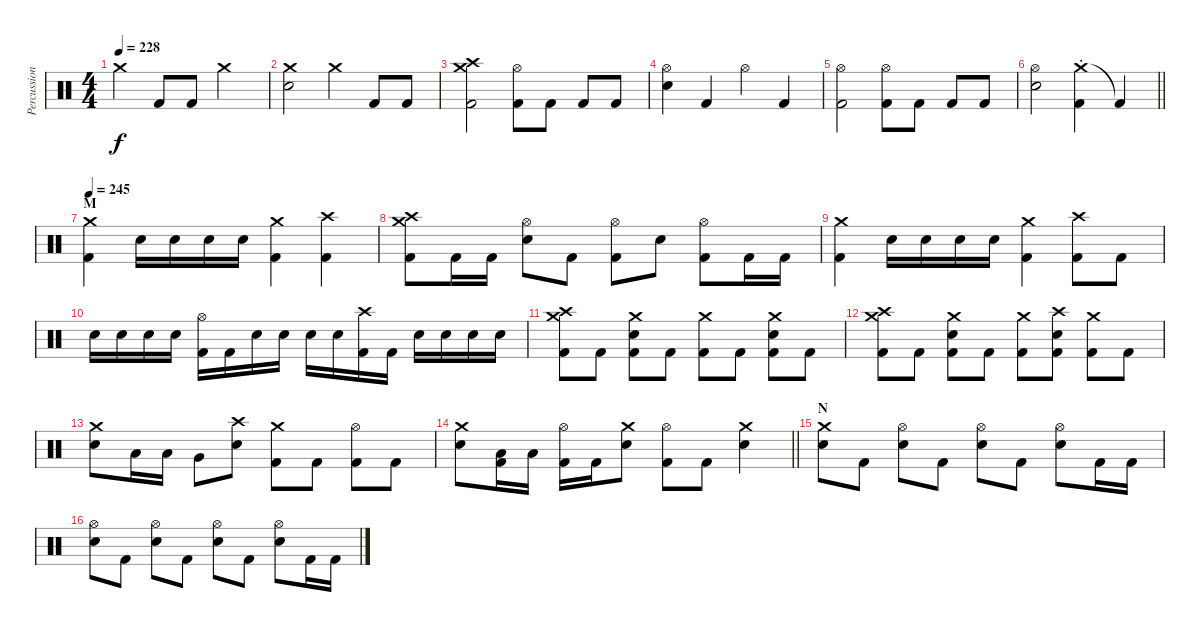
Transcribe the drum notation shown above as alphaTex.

\track ("Percussion" "Percussion") {instrument percussion}
\staff {score}
\articulation defaults
\ts (4 4)
\tempo 228
\clef neutral
\ks c "Crash medium (hit)".4{dy f} "Kick (hit) 2".8 "Kick (hit) 2".8 "Crash medium (hit)".2
|
("Crash medium (hit)" "Electric Snare (hit)").2 "Crash medium (hit)".4 "Kick (hit) 2".8 "Kick (hit) 2".8 |
("Crash medium (hit)" "Crash high (hit)" "Kick (hit) 2").2 ("Hi-Hat (open)" "Kick (hit) 2").8 "Kick (hit) 2".8 "Kick (hit) 2".8 "Kick (hit) 2".8 |
("Hi-Hat (open)" "Electric Snare (hit)").4 "Kick (hit) 2".4 "Hi-Hat (open)".4 "Kick (hit) 2".4 |
("Hi-Hat (open)" "Kick (hit) 2").2 ("Hi-Hat (open)" "Kick (hit) 2").8 "Kick (hit) 2".8 "Kick (hit) 2".8 "Kick (hit) 2".8 |
\barLineRight lightlight
("Hi-Hat (open)" "Electric Snare (hit)").2 ("Crash medium (hit)"{st} "Kick (hit) 2").4 "Kick (hit) 2"{t}.4{volume 0} |
\section ("" "M")
\tempo 245
("Crash medium (hit)" "Kick (hit) 2").4{volume 14} "Electric Snare (hit)".16 "Electric Snare (hit)".16 "Electric Snare (hit)".16 "Electric Snare (hit)".16 ("Crash medium (hit)" "Kick (hit) 2").4 ("Crash high (hit)" "Kick (hit) 2").4 |
("Crash medium (hit)" "Crash high (hit)" "Kick (hit) 2").8 "Kick (hit) 2".16 "Kick (hit) 2".16 ("Hi-Hat (open)" "Electric Snare (hit)").8 "Kick (hit) 2".8 ("Hi-Hat (open)" "Kick (hit) 2").8 "Electric Snare (hit)".8 ("Hi-Hat (open)" "Kick (hit) 2").8 "Kick (hit) 2".16 "Kick (hit) 2".16 |
("Crash medium (hit)" "Kick (hit) 2").4 "Electric Snare (hit)".16 "Electric Snare (hit)".16 "Electric Snare (hit)".16 "Electric Snare (hit)".16 ("Crash medium (hit)" "Kick (hit) 2").4 ("Crash high (hit)" "Kick (hit) 2").8 "Kick (hit) 2".8 |
"Electric Snare (hit)".16 "Electric Snare (hit)".16 "Electric Snare (hit)".16 "Electric Snare (hit)".16 ("Hi-Hat (open)" "Kick (hit) 2").16 "Kick (hit) 2".16 "Electric Snare (hit)".16 "Electric Snare (hit)".16 "Electric Snare (hit)".16 "Electric Snare (hit)".16 ("Crash high (hit)" "Kick (hit) 2").16 "Kick (hit) 2".16 "Electric Snare (hit)".16 "Electric Snare (hit)".16 "Electric Snare (hit)".16 "Electric Snare (hit)".16 |
("Crash medium (hit)" "Crash high (hit)" "Kick (hit) 2").8 "Kick (hit) 2".8 ("Crash medium (hit)" "Electric Snare (hit)" "Kick (hit) 2").8 "Kick (hit) 2".8 ("Crash medium (hit)" "Kick (hit) 2").8 "Kick (hit) 2".8 ("Crash medium (hit)" "Electric Snare (hit)" "Kick (hit) 2").8 "Kick (hit) 2".8 |
("Crash medium (hit)" "Crash high (hit)" "Kick (hit) 2").8 "Kick (hit) 2".8 ("Crash medium (hit)" "Electric Snare (hit)" "Kick (hit) 2").8 "Kick (hit) 2".8 ("Crash medium (hit)" "Kick (hit) 2").8 ("Crash high (hit)" "Electric Snare (hit)" "Kick (hit) 2").8 ("Crash medium (hit)" "Kick (hit) 2").8 "Kick (hit) 2".8 |
("Crash medium (hit)" "Electric Snare (hit)").8 "Low Tom (hit)".16 "Low Tom (hit)".16 "Very Low Tom (hit)".8 ("Crash high (hit)" "Electric Snare (hit)").8 ("Crash medium (hit)" "Kick (hit) 2").8 "Kick (hit) 2".8 ("Hi-Hat (open)" "Kick (hit) 2").8 "Kick (hit) 2".8 |
\barLineRight lightlight
("Crash medium (hit)" "Electric Snare (hit)").8 ("Low Tom (hit)" "Kick (hit) 2").16 "Low Tom (hit)".16 ("Hi-Hat (open)" "Kick (hit) 2").16 "Kick (hit) 2".16 ("Crash medium (hit)" "Electric Snare (hit)").8 ("Hi-Hat (open)" "Kick (hit) 2").8 "Kick (hit) 2".8 ("Crash medium (hit)" "Electric Snare (hit)").4 |
\section ("" "N")
("Crash medium (hit)" "Electric Snare (hit)").8 "Kick (hit) 2".8 ("Hi-Hat (open)" "Electric Snare (hit)").8 "Kick (hit) 2".8 ("Hi-Hat (open)" "Electric Snare (hit)").8 "Kick (hit) 2".8 ("Hi-Hat (open)" "Electric Snare (hit)").8 "Kick (hit) 2".16 "Kick (hit) 2".16 |
("Hi-Hat (open)" "Electric Snare (hit)").8 "Kick (hit) 2".8 ("Hi-Hat (open)" "Electric Snare (hit)").8 "Kick (hit) 2".8 ("Hi-Hat (open)" "Electric Snare (hit)").8 "Kick (hit) 2".8 ("Hi-Hat (open)" "Electric Snare (hit)").8 "Kick (hit) 2".16 "Kick (hit) 2".16
